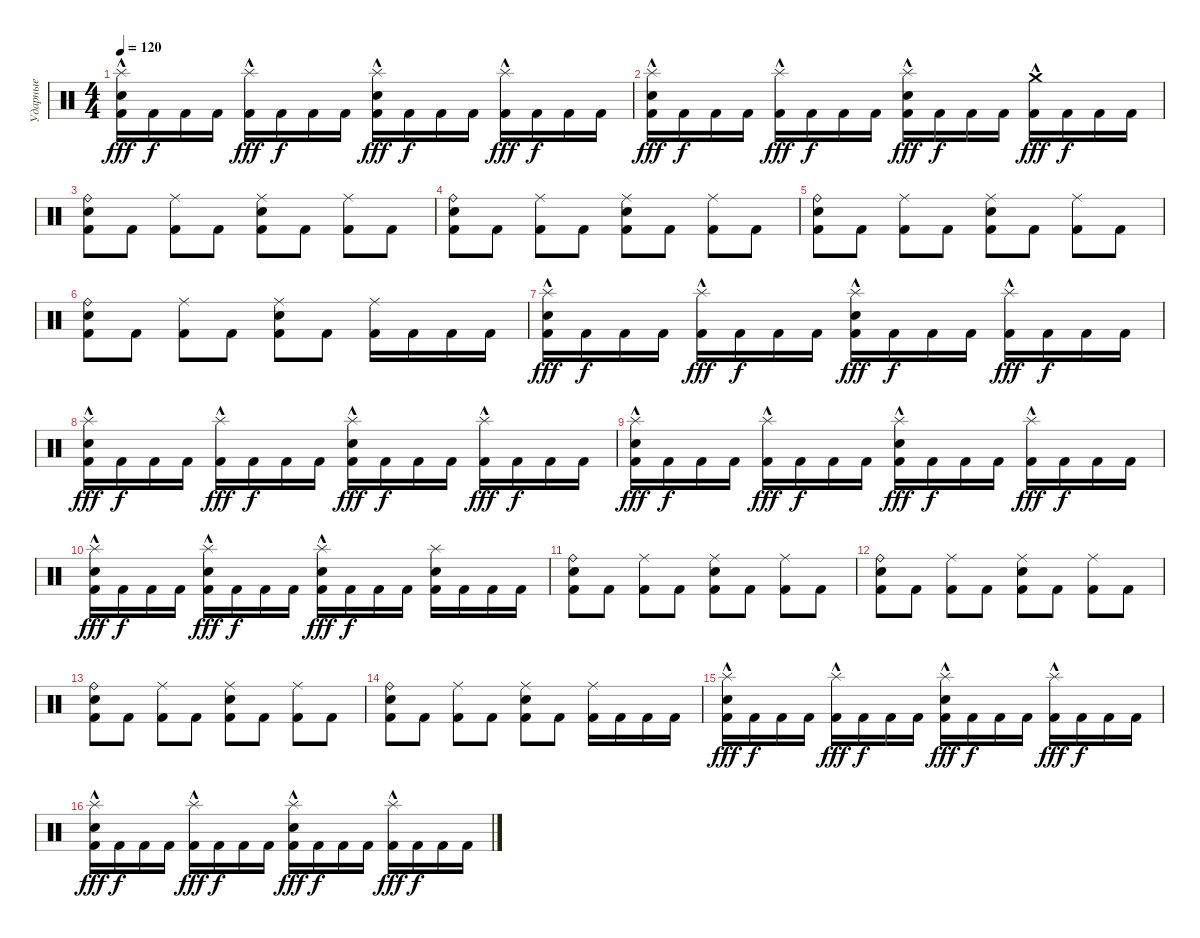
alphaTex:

\track ("Ударные" "Ударные") {instrument percussion}
\staff {score}
\articulation defaults
\ts (4 4)
\tempo 120
\clef neutral
\ks c
("Electric Snare (hit)" "Kick (hit) 2" "Splash (hit)"{hac}).16{dy fff} "Kick (hit) 2".16{dy f} "Kick (hit) 2".16 "Kick (hit) 2".16 ("Kick (hit) 2" "Splash (hit)"{hac}).16{dy fff} "Kick (hit) 2".16{dy f} "Kick (hit) 2".16 "Kick (hit) 2".16 ("Electric Snare (hit)" "Kick (hit) 2" "Splash (hit)"{hac}).16{dy fff} "Kick (hit) 2".16{dy f} "Kick (hit) 2".16 "Kick (hit) 2".16 ("Kick (hit) 2" "Splash (hit)"{hac}).16{dy fff} "Kick (hit) 2".16{dy f} "Kick (hit) 2".16 "Kick (hit) 2".16 |
("Electric Snare (hit)" "Kick (hit) 2" "Splash (hit)"{hac}).16{dy fff} "Kick (hit) 2".16{dy f} "Kick (hit) 2".16 "Kick (hit) 2".16 ("Kick (hit) 2" "Splash (hit)"{hac}).16{dy fff} "Kick (hit) 2".16{dy f} "Kick (hit) 2".16 "Kick (hit) 2".16 ("Electric Snare (hit)" "Kick (hit) 2" "Splash (hit)"{hac}).16{dy fff} "Kick (hit) 2".16{dy f} "Kick (hit) 2".16 "Kick (hit) 2".16 ("Kick (hit) 2" "Crash medium (hit)"{hac}).16{dy fff} "Kick (hit) 2".16{dy f} "Kick (hit) 2".16 "Kick (hit) 2".16 |
("Electric Snare (hit)" "Kick (hit) 2" "Ride (bell)").8 "Kick (hit) 2".8 ("Kick (hit) 2" "Ride (middle)").8 "Kick (hit) 2".8 ("Electric Snare (hit)" "Kick (hit) 2" "Ride (middle)").8 "Kick (hit) 2".8 ("Kick (hit) 2" "Ride (middle)").8 "Kick (hit) 2".8 |
("Electric Snare (hit)" "Kick (hit) 2" "Ride (bell)").8 "Kick (hit) 2".8 ("Kick (hit) 2" "Ride (middle)").8 "Kick (hit) 2".8 ("Electric Snare (hit)" "Kick (hit) 2" "Ride (middle)").8 "Kick (hit) 2".8 ("Kick (hit) 2" "Ride (middle)").8 "Kick (hit) 2".8 |
("Electric Snare (hit)" "Kick (hit) 2" "Ride (bell)").8 "Kick (hit) 2".8 ("Kick (hit) 2" "Ride (middle)").8 "Kick (hit) 2".8 ("Electric Snare (hit)" "Kick (hit) 2" "Ride (middle)").8 "Kick (hit) 2".8 ("Kick (hit) 2" "Ride (middle)").8 "Kick (hit) 2".8 |
("Electric Snare (hit)" "Kick (hit) 2" "Ride (bell)").8 "Kick (hit) 2".8 ("Kick (hit) 2" "Ride (middle)").8 "Kick (hit) 2".8 ("Electric Snare (hit)" "Kick (hit) 2" "Ride (middle)").8 "Kick (hit) 2".8 ("Kick (hit) 2" "Ride (middle)").16 "Kick (hit) 2".16 "Kick (hit) 2".16 "Kick (hit) 2".16 |
("Electric Snare (hit)" "Kick (hit) 2" "Splash (hit)"{hac}).16{dy fff} "Kick (hit) 2".16{dy f} "Kick (hit) 2".16 "Kick (hit) 2".16 ("Kick (hit) 2" "Splash (hit)"{hac}).16{dy fff} "Kick (hit) 2".16{dy f} "Kick (hit) 2".16 "Kick (hit) 2".16 ("Electric Snare (hit)" "Kick (hit) 2" "Splash (hit)"{hac}).16{dy fff} "Kick (hit) 2".16{dy f} "Kick (hit) 2".16 "Kick (hit) 2".16 ("Kick (hit) 2" "Splash (hit)"{hac}).16{dy fff} "Kick (hit) 2".16{dy f} "Kick (hit) 2".16 "Kick (hit) 2".16 |
("Electric Snare (hit)" "Kick (hit) 2" "Splash (hit)"{hac}).16{dy fff} "Kick (hit) 2".16{dy f} "Kick (hit) 2".16 "Kick (hit) 2".16 ("Kick (hit) 2" "Splash (hit)"{hac}).16{dy fff} "Kick (hit) 2".16{dy f} "Kick (hit) 2".16 "Kick (hit) 2".16 ("Electric Snare (hit)" "Kick (hit) 2" "Splash (hit)"{hac}).16{dy fff} "Kick (hit) 2".16{dy f} "Kick (hit) 2".16 "Kick (hit) 2".16 ("Kick (hit) 2" "Splash (hit)"{hac}).16{dy fff} "Kick (hit) 2".16{dy f} "Kick (hit) 2".16 "Kick (hit) 2".16 |
("Electric Snare (hit)" "Kick (hit) 2" "Splash (hit)"{hac}).16{dy fff} "Kick (hit) 2".16{dy f} "Kick (hit) 2".16 "Kick (hit) 2".16 ("Kick (hit) 2" "Splash (hit)"{hac}).16{dy fff} "Kick (hit) 2".16{dy f} "Kick (hit) 2".16 "Kick (hit) 2".16 ("Electric Snare (hit)" "Kick (hit) 2" "Splash (hit)"{hac}).16{dy fff} "Kick (hit) 2".16{dy f} "Kick (hit) 2".16 "Kick (hit) 2".16 ("Kick (hit) 2" "Splash (hit)"{hac}).16{dy fff} "Kick (hit) 2".16{dy f} "Kick (hit) 2".16 "Kick (hit) 2".16 |
("Electric Snare (hit)" "Kick (hit) 2" "Splash (hit)"{hac}).16{dy fff} "Kick (hit) 2".16{dy f} "Kick (hit) 2".16 "Kick (hit) 2".16 ("Electric Snare (hit)" "Kick (hit) 2" "Splash (hit)"{hac}).16{dy fff} "Kick (hit) 2".16{dy f} "Kick (hit) 2".16 "Kick (hit) 2".16 ("Electric Snare (hit)" "Kick (hit) 2" "Splash (hit)"{hac}).16{dy fff} "Kick (hit) 2".16{dy f} "Kick (hit) 2".16 "Kick (hit) 2".16 ("Electric Snare (hit)" "Kick (hit) 2" "Splash (hit)").16 "Kick (hit) 2".16 "Kick (hit) 2".16 "Kick (hit) 2".16 |
("Electric Snare (hit)" "Kick (hit) 2" "Ride (bell)").8 "Kick (hit) 2".8 ("Kick (hit) 2" "Ride (middle)").8 "Kick (hit) 2".8 ("Electric Snare (hit)" "Kick (hit) 2" "Ride (middle)").8 "Kick (hit) 2".8 ("Kick (hit) 2" "Ride (middle)").8 "Kick (hit) 2".8 |
("Electric Snare (hit)" "Kick (hit) 2" "Ride (bell)").8 "Kick (hit) 2".8 ("Kick (hit) 2" "Ride (middle)").8 "Kick (hit) 2".8 ("Electric Snare (hit)" "Kick (hit) 2" "Ride (middle)").8 "Kick (hit) 2".8 ("Kick (hit) 2" "Ride (middle)").8 "Kick (hit) 2".8 |
("Electric Snare (hit)" "Kick (hit) 2" "Ride (bell)").8 "Kick (hit) 2".8 ("Kick (hit) 2" "Ride (middle)").8 "Kick (hit) 2".8 ("Electric Snare (hit)" "Kick (hit) 2" "Ride (middle)").8 "Kick (hit) 2".8 ("Kick (hit) 2" "Ride (middle)").8 "Kick (hit) 2".8 |
("Electric Snare (hit)" "Kick (hit) 2" "Ride (bell)").8 "Kick (hit) 2".8 ("Kick (hit) 2" "Ride (middle)").8 "Kick (hit) 2".8 ("Electric Snare (hit)" "Kick (hit) 2" "Ride (middle)").8 "Kick (hit) 2".8 ("Kick (hit) 2" "Ride (middle)").16 "Kick (hit) 2".16 "Kick (hit) 2".16 "Kick (hit) 2".16 |
("Electric Snare (hit)" "Kick (hit) 2" "Splash (hit)"{hac}).16{dy fff} "Kick (hit) 2".16{dy f} "Kick (hit) 2".16 "Kick (hit) 2".16 ("Kick (hit) 2" "Splash (hit)"{hac}).16{dy fff} "Kick (hit) 2".16{dy f} "Kick (hit) 2".16 "Kick (hit) 2".16 ("Electric Snare (hit)" "Kick (hit) 2" "Splash (hit)"{hac}).16{dy fff} "Kick (hit) 2".16{dy f} "Kick (hit) 2".16 "Kick (hit) 2".16 ("Kick (hit) 2" "Splash (hit)"{hac}).16{dy fff} "Kick (hit) 2".16{dy f} "Kick (hit) 2".16 "Kick (hit) 2".16 |
("Electric Snare (hit)" "Kick (hit) 2" "Splash (hit)"{hac}).16{dy fff} "Kick (hit) 2".16{dy f} "Kick (hit) 2".16 "Kick (hit) 2".16 ("Kick (hit) 2" "Splash (hit)"{hac}).16{dy fff} "Kick (hit) 2".16{dy f} "Kick (hit) 2".16 "Kick (hit) 2".16 ("Electric Snare (hit)" "Kick (hit) 2" "Splash (hit)"{hac}).16{dy fff} "Kick (hit) 2".16{dy f} "Kick (hit) 2".16 "Kick (hit) 2".16 ("Kick (hit) 2" "Splash (hit)"{hac}).16{dy fff} "Kick (hit) 2".16{dy f} "Kick (hit) 2".16 "Kick (hit) 2".16
